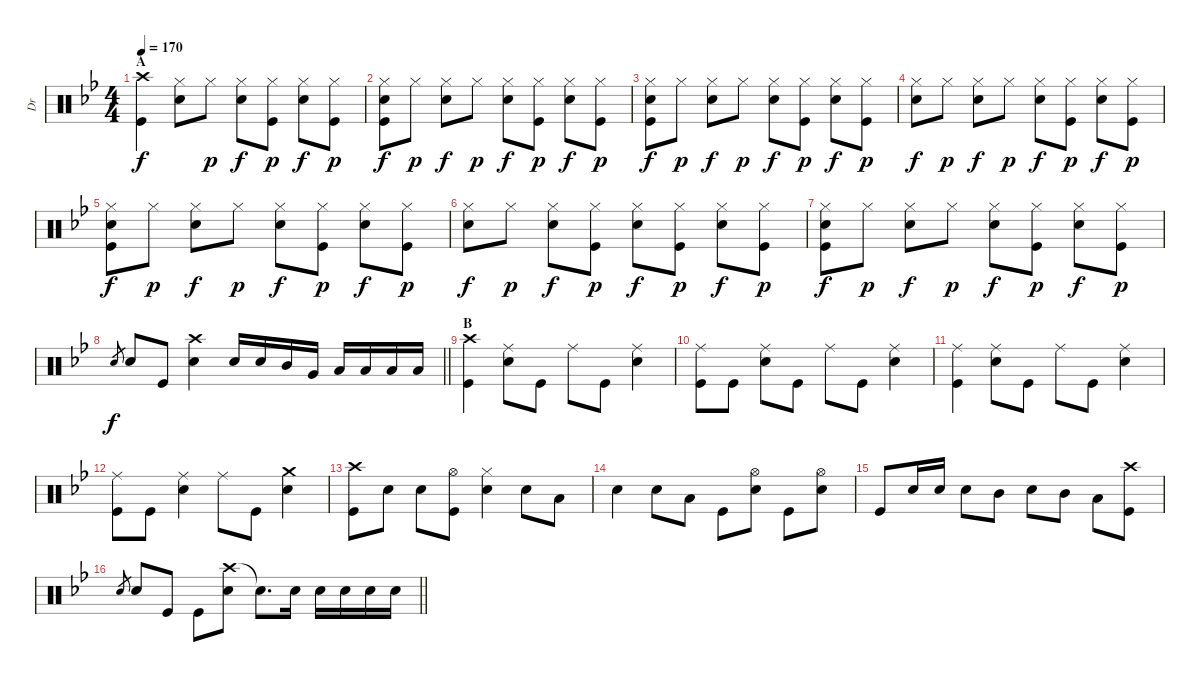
\track ("Dr" "Dr") {instrument percussion}
\staff {score}
\articulation defaults
\ts (4 4)
\section ("" "A")
\tempo 170
\clef neutral
\ks bb
("Crash high (hit)" "Kick (hit)").4{dy f} ("Hi-Hat (closed)" "Electric Snare (hit)").8 "Hi-Hat (closed)".8{dy p} ("Hi-Hat (closed)" "Electric Snare (hit)").8{dy f} ("Hi-Hat (closed)" "Kick (hit)").8{dy p} ("Hi-Hat (closed)" "Electric Snare (hit)").8{dy f} ("Hi-Hat (closed)" "Kick (hit)").8{dy p} |
("Hi-Hat (closed)" "Electric Snare (hit)" "Kick (hit)").8{dy f} "Hi-Hat (closed)".8{dy p} ("Hi-Hat (closed)" "Electric Snare (hit)").8{dy f} "Hi-Hat (closed)".8{dy p} ("Hi-Hat (closed)" "Electric Snare (hit)").8{dy f} ("Hi-Hat (closed)" "Kick (hit)").8{dy p} ("Hi-Hat (closed)" "Electric Snare (hit)").8{dy f} ("Hi-Hat (closed)" "Kick (hit)").8{dy p} |
("Hi-Hat (closed)" "Electric Snare (hit)" "Kick (hit)").8{dy f} "Hi-Hat (closed)".8{dy p} ("Hi-Hat (closed)" "Electric Snare (hit)").8{dy f} "Hi-Hat (closed)".8{dy p} ("Hi-Hat (closed)" "Electric Snare (hit)").8{dy f} ("Hi-Hat (closed)" "Kick (hit)").8{dy p} ("Hi-Hat (closed)" "Electric Snare (hit)").8{dy f} ("Hi-Hat (closed)" "Kick (hit)").8{dy p} |
("Hi-Hat (closed)" "Electric Snare (hit)").8{dy f} "Hi-Hat (closed)".8{dy p} ("Hi-Hat (closed)" "Electric Snare (hit)").8{dy f} "Hi-Hat (closed)".8{dy p} ("Hi-Hat (closed)" "Electric Snare (hit)").8{dy f} ("Hi-Hat (closed)" "Kick (hit)").8{dy p} ("Hi-Hat (closed)" "Electric Snare (hit)").8{dy f} ("Hi-Hat (closed)" "Kick (hit)").8{dy p} |
("Hi-Hat (closed)" "Electric Snare (hit)" "Kick (hit)").8{dy f} "Hi-Hat (closed)".8{dy p} ("Hi-Hat (closed)" "Electric Snare (hit)").8{dy f} "Hi-Hat (closed)".8{dy p} ("Hi-Hat (closed)" "Electric Snare (hit)").8{dy f} ("Hi-Hat (closed)" "Kick (hit)").8{dy p} ("Hi-Hat (closed)" "Electric Snare (hit)").8{dy f} ("Hi-Hat (closed)" "Kick (hit)").8{dy p} |
("Hi-Hat (closed)" "Electric Snare (hit)").8{dy f} "Hi-Hat (closed)".8{dy p} ("Hi-Hat (closed)" "Electric Snare (hit)").8{dy f} ("Hi-Hat (closed)" "Kick (hit)").8{dy p} ("Hi-Hat (closed)" "Electric Snare (hit)").8{dy f} ("Hi-Hat (closed)" "Kick (hit)").8{dy p} ("Hi-Hat (closed)" "Electric Snare (hit)").8{dy f} ("Hi-Hat (closed)" "Kick (hit)").8{dy p} |
("Hi-Hat (closed)" "Electric Snare (hit)" "Kick (hit)").8{dy f} "Hi-Hat (closed)".8{dy p} ("Hi-Hat (closed)" "Electric Snare (hit)").8{dy f} "Hi-Hat (closed)".8{dy p} ("Hi-Hat (closed)" "Electric Snare (hit)").8{dy f} ("Hi-Hat (closed)" "Kick (hit)").8{dy p} ("Hi-Hat (closed)" "Electric Snare (hit)").8{dy f} ("Hi-Hat (closed)" "Kick (hit)").8{dy p} |
\barLineRight lightlight "Electric Snare (hit)".8{gr dy f} "Electric Snare (hit)".8 "Kick (hit)".8
("Crash high (hit)" "Electric Snare (hit)").4 "Electric Snare (hit)".16 "Electric Snare (hit)".16 "Mid Tom (hit)".16 "Very Low Tom (hit)".16 "Low Floor Tom (hit)".16 "Low Floor Tom (hit)".16 "Low Floor Tom (hit)".16 "Low Floor Tom (hit)".16 |
\section ("" "B")
("Crash high (hit)" "Kick (hit)").4 ("Ride (middle)" "Electric Snare (hit)").8 "Kick (hit)".8 "Ride (middle)".8 "Kick (hit)".8 ("Ride (middle)" "Electric Snare (hit)").4 |
("Ride (middle)" "Kick (hit)").8 "Kick (hit)".8 ("Ride (middle)" "Electric Snare (hit)").8 "Kick (hit)".8 "Ride (middle)".8 "Kick (hit)".8 ("Ride (middle)" "Electric Snare (hit)").4 |
("Ride (middle)" "Kick (hit)").4 ("Ride (middle)" "Electric Snare (hit)").8 "Kick (hit)".8 "Ride (middle)".8 "Kick (hit)".8 ("Ride (middle)" "Electric Snare (hit)").4 |
("Ride (middle)" "Kick (hit)").8 "Kick (hit)".8 ("Ride (middle)" "Electric Snare (hit)").4 "Ride (middle)".8 "Kick (hit)".8 ("Crash medium (hit)" "Electric Snare (hit)").4 |
("Crash high (hit)" "Kick (hit)").8 "Electric Snare (hit)".8 "Electric Snare (hit)".8 ("Hi-Hat (open)" "Kick (hit)").8 ("Hi-Hat (closed)" "Electric Snare (hit)").4 "Electric Snare (hit)".8 "Low Floor Tom (hit)".8 |
"Electric Snare (hit)".4 "Electric Snare (hit)".8 "Low Floor Tom (hit)".8 "Kick (hit)".8 ("Hi-Hat (open)" "Electric Snare (hit)").8 "Kick (hit)".8 ("Hi-Hat (open)" "Electric Snare (hit)").8 |
"Kick (hit)".8 "Electric Snare (hit)".16 "Electric Snare (hit)".16 "Electric Snare (hit)".8 "Mid Tom (hit)".8 "Electric Snare (hit)".8 "Mid Tom (hit)".8 "Low Floor Tom (hit)".8 ("Crash high (hit)" "Kick (hit)").8 |
\barLineRight lightlight "Electric Snare (hit)".8{gr} "Electric Snare (hit)".8 "Kick (hit)".8 "Kick (hit)".8
("Crash high (hit)" "Electric Snare (hit)").8 "Snare (hit)"{t}.8{d} "Electric Snare (hit)".16 "Electric Snare (hit)".16 "Electric Snare (hit)".16 "Electric Snare (hit)".16 "Electric Snare (hit)".16
